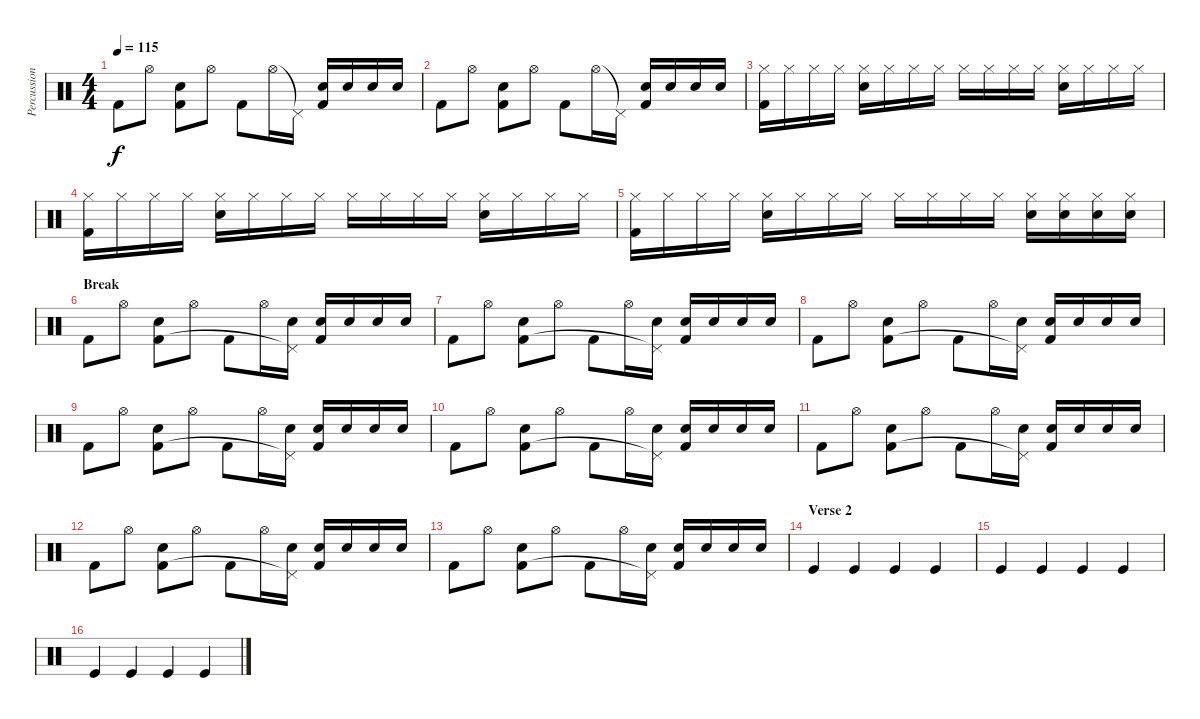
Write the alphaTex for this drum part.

\track ("Percussion" "Percussion") {instrument percussion}
\staff {score}
\articulation defaults
\ts (4 4)
\tempo 115
\clef neutral
\ks c "Kick (hit) 2".8{dy f} "Hi-Hat (open)".8
("Electric Snare (hit)" "Kick (hit) 2").8 "Hi-Hat (open)".8 "Kick (hit) 2".8 "Hi-Hat (open)".16 "Pedal Hi-Hat (hit)"{t}.16 ("Electric Snare (hit)" "Kick (hit) 2").16 "Electric Snare (hit)".16 "Electric Snare (hit)".16 "Electric Snare (hit)".16 |
"Kick (hit) 2".8 "Hi-Hat (open)".8 ("Electric Snare (hit)" "Kick (hit) 2").8 "Hi-Hat (open)".8 "Kick (hit) 2".8 "Hi-Hat (open)".16 "Pedal Hi-Hat (hit)"{t}.16 ("Electric Snare (hit)" "Kick (hit) 2").16 "Electric Snare (hit)".16 "Electric Snare (hit)".16 "Electric Snare (hit)".16 |
("Hi-Hat (closed)" "Kick (hit) 2").16 "Hi-Hat (closed)".16 "Hi-Hat (closed)".16 "Hi-Hat (closed)".16 ("Hi-Hat (closed)" "Snare (hit) 2").16 "Hi-Hat (closed)".16 "Hi-Hat (closed)".16 "Hi-Hat (closed)".16 "Hi-Hat (closed)".16 "Hi-Hat (closed)".16 "Hi-Hat (closed)".16 "Hi-Hat (closed)".16 ("Hi-Hat (closed)" "Snare (hit) 2").16 "Hi-Hat (closed)".16 "Hi-Hat (closed)".16 "Hi-Hat (closed)".16 |
("Hi-Hat (closed)" "Kick (hit) 2").16 "Hi-Hat (closed)".16 "Hi-Hat (closed)".16 "Hi-Hat (closed)".16 ("Hi-Hat (closed)" "Snare (hit) 2").16 "Hi-Hat (closed)".16 "Hi-Hat (closed)".16 "Hi-Hat (closed)".16 "Hi-Hat (closed)".16 "Hi-Hat (closed)".16 "Hi-Hat (closed)".16 "Hi-Hat (closed)".16 ("Hi-Hat (closed)" "Snare (hit) 2").16 "Hi-Hat (closed)".16 "Hi-Hat (closed)".16 "Hi-Hat (closed)".16 |
("Hi-Hat (closed)" "Kick (hit) 2").16 "Hi-Hat (closed)".16 "Hi-Hat (closed)".16 "Hi-Hat (closed)".16 ("Hi-Hat (closed)" "Snare (hit) 2").16 "Hi-Hat (closed)".16 "Hi-Hat (closed)".16 "Hi-Hat (closed)".16 "Hi-Hat (closed)".16 "Hi-Hat (closed)".16 "Hi-Hat (closed)".16 "Hi-Hat (closed)".16 ("Hi-Hat (closed)" "Snare (hit) 2").16 ("Hi-Hat (closed)" "Snare (hit) 2").16 ("Hi-Hat (closed)" "Snare (hit) 2").16 ("Hi-Hat (closed)" "Snare (hit) 2").16 |
\section ("" "Break")
"Kick (hit) 2".8 "Hi-Hat (open)".8 ("Electric Snare (hit)" "Kick (hit) 2").8 "Hi-Hat (open)".8 "Kick (hit) 2".8 "Hi-Hat (open)".16 ("Electric Snare (hit)" "Pedal Hi-Hat (hit)"{t}).16 ("Electric Snare (hit)" "Kick (hit) 2").16 "Electric Snare (hit)".16 "Electric Snare (hit)".16 "Electric Snare (hit)".16 |
"Kick (hit) 2".8 "Hi-Hat (open)".8 ("Electric Snare (hit)" "Kick (hit) 2").8 "Hi-Hat (open)".8 "Kick (hit) 2".8 "Hi-Hat (open)".16 ("Electric Snare (hit)" "Pedal Hi-Hat (hit)"{t}).16 ("Electric Snare (hit)" "Kick (hit) 2").16 "Electric Snare (hit)".16 "Electric Snare (hit)".16 "Electric Snare (hit)".16 |
"Kick (hit) 2".8 "Hi-Hat (open)".8 ("Electric Snare (hit)" "Kick (hit) 2").8 "Hi-Hat (open)".8 "Kick (hit) 2".8 "Hi-Hat (open)".16 ("Electric Snare (hit)" "Pedal Hi-Hat (hit)"{t}).16 ("Electric Snare (hit)" "Kick (hit) 2").16 "Electric Snare (hit)".16 "Electric Snare (hit)".16 "Electric Snare (hit)".16 |
"Kick (hit) 2".8 "Hi-Hat (open)".8 ("Electric Snare (hit)" "Kick (hit) 2").8 "Hi-Hat (open)".8 "Kick (hit) 2".8 "Hi-Hat (open)".16 ("Electric Snare (hit)" "Pedal Hi-Hat (hit)"{t}).16 ("Electric Snare (hit)" "Kick (hit) 2").16 "Electric Snare (hit)".16 "Electric Snare (hit)".16 "Electric Snare (hit)".16 |
"Kick (hit) 2".8 "Hi-Hat (open)".8 ("Electric Snare (hit)" "Kick (hit) 2").8 "Hi-Hat (open)".8 "Kick (hit) 2".8 "Hi-Hat (open)".16 ("Electric Snare (hit)" "Pedal Hi-Hat (hit)"{t}).16 ("Electric Snare (hit)" "Kick (hit) 2").16 "Electric Snare (hit)".16 "Electric Snare (hit)".16 "Electric Snare (hit)".16 |
"Kick (hit) 2".8 "Hi-Hat (open)".8 ("Electric Snare (hit)" "Kick (hit) 2").8 "Hi-Hat (open)".8 "Kick (hit) 2".8 "Hi-Hat (open)".16 ("Electric Snare (hit)" "Pedal Hi-Hat (hit)"{t}).16 ("Electric Snare (hit)" "Kick (hit) 2").16 "Electric Snare (hit)".16 "Electric Snare (hit)".16 "Electric Snare (hit)".16 |
"Kick (hit) 2".8 "Hi-Hat (open)".8 ("Electric Snare (hit)" "Kick (hit) 2").8 "Hi-Hat (open)".8 "Kick (hit) 2".8 "Hi-Hat (open)".16 ("Electric Snare (hit)" "Pedal Hi-Hat (hit)"{t}).16 ("Electric Snare (hit)" "Kick (hit) 2").16 "Electric Snare (hit)".16 "Electric Snare (hit)".16 "Electric Snare (hit)".16 |
"Kick (hit) 2".8 "Hi-Hat (open)".8 ("Electric Snare (hit)" "Kick (hit) 2").8 "Hi-Hat (open)".8 "Kick (hit) 2".8 "Hi-Hat (open)".16 ("Electric Snare (hit)" "Pedal Hi-Hat (hit)"{t}).16 ("Electric Snare (hit)" "Kick (hit) 2").16 "Electric Snare (hit)".16 "Electric Snare (hit)".16 "Electric Snare (hit)".16 |
\section ("" "Verse 2")
"Kick (hit)".4 "Kick (hit)".4 "Kick (hit)".4 "Kick (hit)".4 |
"Kick (hit)".4 "Kick (hit)".4 "Kick (hit)".4 "Kick (hit)".4 |
"Kick (hit)".4 "Kick (hit)".4 "Kick (hit)".4 "Kick (hit)".4
